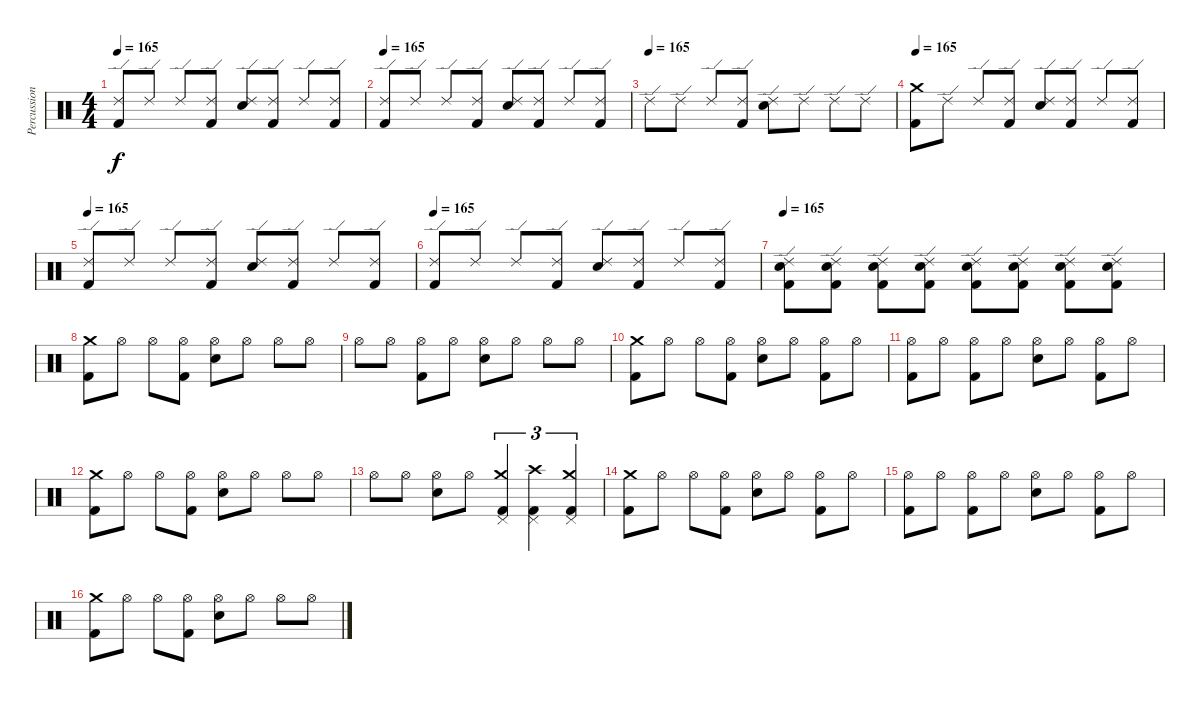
\track ("Percussion" "Percussion") {instrument percussion}
\staff {score}
\articulation defaults
\ts (4 4)
\tempo 165
\clef neutral
\ks c
("Ride (edge) 2" "Kick (hit) 2").8{dy f} "Ride (edge) 2".8 "Ride (edge) 2".8 ("Ride (edge) 2" "Kick (hit) 2").8 ("Ride (edge) 2" "Electric Snare (hit)").8 ("Ride (edge) 2" "Kick (hit) 2").8 "Ride (edge) 2".8 ("Ride (edge) 2" "Kick (hit) 2").8 |
\tempo 165
("Ride (edge) 2" "Kick (hit) 2").8 "Ride (edge) 2".8 "Ride (edge) 2".8 ("Ride (edge) 2" "Kick (hit) 2").8 ("Ride (edge) 2" "Electric Snare (hit)").8 ("Ride (edge) 2" "Kick (hit) 2").8 "Ride (edge) 2".8 ("Ride (edge) 2" "Kick (hit) 2").8 |
\tempo (165)
"Ride (edge) 2".8 "Ride (edge) 2".8 "Ride (edge) 2".8 ("Ride (edge) 2" "Kick (hit) 2").8 ("Ride (edge) 2" "Electric Snare (hit)").8 "Ride (edge) 2".8 "Ride (edge) 2".8 "Ride (edge) 2".8 |
\tempo 165
("Crash medium (hit)" "Kick (hit) 2").8 "Ride (edge) 2".8 "Ride (edge) 2".8 ("Ride (edge) 2" "Kick (hit) 2").8 ("Ride (edge) 2" "Electric Snare (hit)").8 ("Ride (edge) 2" "Kick (hit) 2").8 "Ride (edge) 2".8 ("Ride (edge) 2" "Kick (hit) 2").8 |
\tempo 165
("Ride (edge) 2" "Kick (hit) 2").8 "Ride (edge) 2".8 "Ride (edge) 2".8 ("Ride (edge) 2" "Kick (hit) 2").8 ("Ride (edge) 2" "Electric Snare (hit)").8 ("Ride (edge) 2" "Kick (hit) 2").8 "Ride (edge) 2".8 ("Ride (edge) 2" "Kick (hit) 2").8 |
\tempo 165
("Ride (edge) 2" "Kick (hit) 2").8 "Ride (edge) 2".8 "Ride (edge) 2".8 ("Ride (edge) 2" "Kick (hit) 2").8 ("Ride (edge) 2" "Electric Snare (hit)").8 ("Ride (edge) 2" "Kick (hit) 2").8 "Ride (edge) 2".8 ("Ride (edge) 2" "Kick (hit) 2").8 |
\tempo 165
("Ride (edge) 2" "Electric Snare (hit)" "Kick (hit) 2").8 ("Ride (edge) 2" "Electric Snare (hit)" "Kick (hit) 2").8 ("Ride (edge) 2" "Electric Snare (hit)" "Kick (hit) 2").8 ("Ride (edge) 2" "Electric Snare (hit)" "Kick (hit) 2").8 ("Ride (edge) 2" "Electric Snare (hit)" "Kick (hit) 2").8 ("Ride (edge) 2" "Electric Snare (hit)" "Kick (hit) 2").8 ("Ride (edge) 2" "Electric Snare (hit)" "Kick (hit) 2").8 ("Ride (edge) 2" "Electric Snare (hit)" "Kick (hit) 2").8 |
("Crash medium (hit)" "Kick (hit) 2").8 "Hi-Hat (open)".8 "Hi-Hat (open)".8 ("Hi-Hat (open)" "Kick (hit) 2").8 ("Hi-Hat (open)" "Electric Snare (hit)").8 "Hi-Hat (open)".8 "Hi-Hat (open)".8 "Hi-Hat (open)".8 |
"Hi-Hat (open)".8 "Hi-Hat (open)".8 ("Hi-Hat (open)" "Kick (hit) 2").8 "Hi-Hat (open)".8 ("Hi-Hat (open)" "Electric Snare (hit)").8 "Hi-Hat (open)".8 "Hi-Hat (open)".8 "Hi-Hat (open)".8 |
("Crash medium (hit)" "Kick (hit) 2").8 "Hi-Hat (open)".8 "Hi-Hat (open)".8 ("Hi-Hat (open)" "Kick (hit) 2").8 ("Hi-Hat (open)" "Electric Snare (hit)").8 "Hi-Hat (open)".8 ("Hi-Hat (open)" "Kick (hit) 2").8 "Hi-Hat (open)".8 |
("Hi-Hat (open)" "Kick (hit) 2").8 "Hi-Hat (open)".8 ("Hi-Hat (open)" "Kick (hit) 2").8 "Hi-Hat (open)".8 ("Hi-Hat (open)" "Electric Snare (hit)").8 "Hi-Hat (open)".8 ("Hi-Hat (open)" "Kick (hit) 2").8 "Hi-Hat (open)".8 |
("Crash medium (hit)" "Kick (hit) 2").8 "Hi-Hat (open)".8 "Hi-Hat (open)".8 ("Hi-Hat (open)" "Kick (hit) 2").8 ("Hi-Hat (open)" "Electric Snare (hit)").8 "Hi-Hat (open)".8 "Hi-Hat (open)".8 "Hi-Hat (open)".8 |
"Hi-Hat (open)".8 "Hi-Hat (open)".8 ("Hi-Hat (open)" "Electric Snare (hit)").8 "Hi-Hat (open)".8 ("Crash medium (hit)" "Pedal Hi-Hat (hit)" "Kick (hit) 2").4{tu (3 2)} ("Crash high (hit)" "Pedal Hi-Hat (hit)" "Kick (hit) 2").4{tu (3 2)} ("Crash medium (hit)" "Pedal Hi-Hat (hit)" "Kick (hit) 2").4{tu (3 2)} |
("Crash medium (hit)" "Kick (hit) 2").8 "Hi-Hat (open)".8 "Hi-Hat (open)".8 ("Hi-Hat (open)" "Kick (hit) 2").8 ("Hi-Hat (open)" "Electric Snare (hit)").8 "Hi-Hat (open)".8 ("Hi-Hat (open)" "Kick (hit) 2").8 "Hi-Hat (open)".8 |
("Hi-Hat (open)" "Kick (hit) 2").8 "Hi-Hat (open)".8 ("Hi-Hat (open)" "Kick (hit) 2").8 "Hi-Hat (open)".8 ("Hi-Hat (open)" "Electric Snare (hit)").8 "Hi-Hat (open)".8 ("Hi-Hat (open)" "Kick (hit) 2").8 "Hi-Hat (open)".8 |
("Crash medium (hit)" "Kick (hit) 2").8 "Hi-Hat (open)".8 "Hi-Hat (open)".8 ("Hi-Hat (open)" "Kick (hit) 2").8 ("Hi-Hat (open)" "Electric Snare (hit)").8 "Hi-Hat (open)".8 "Hi-Hat (open)".8 "Hi-Hat (open)".8
